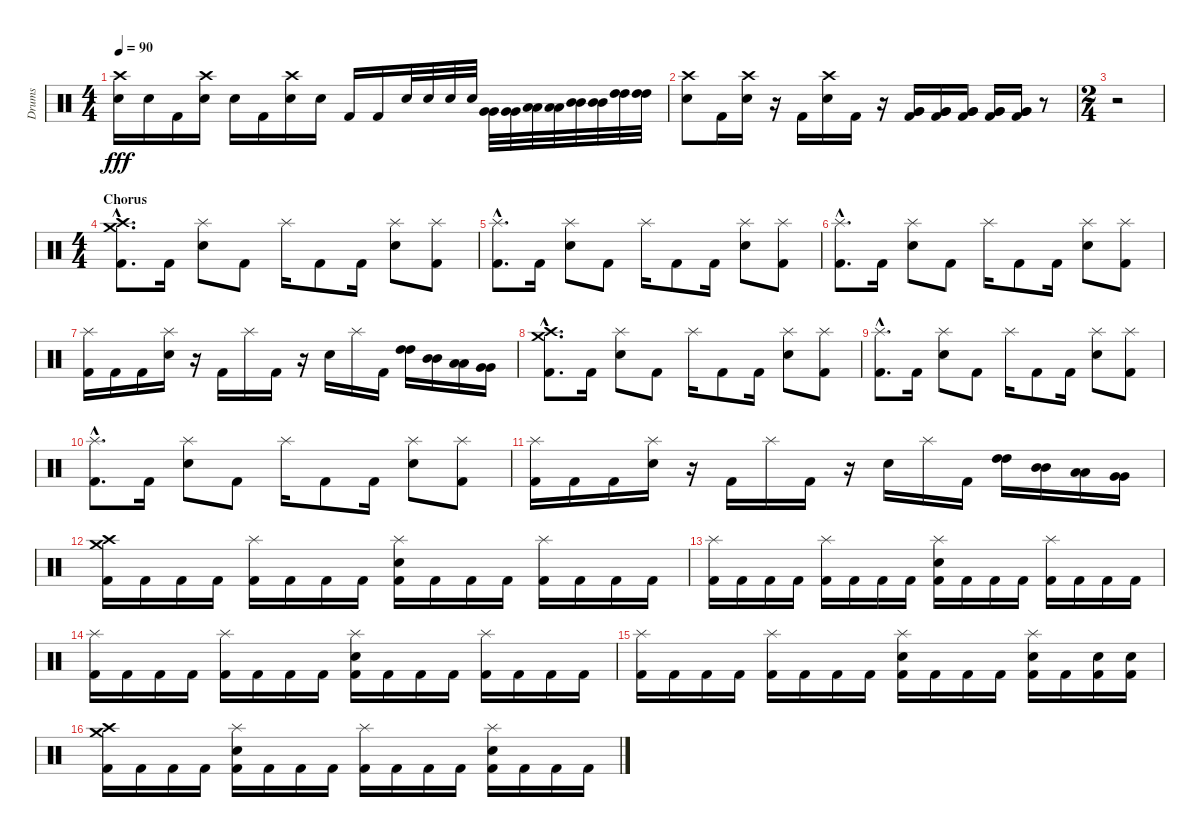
\track ("Drums" "Drums") {instrument percussion}
\staff {score}
\articulation defaults
\ts (4 4)
\tempo 90
\clef neutral
\ks c
("Crash high (hit)" "Electric Snare (hit)").16{dy fff} "Electric Snare (hit)".16 "Kick (hit) 2".16 ("Crash high (hit)" "Electric Snare (hit)").16 "Electric Snare (hit)".16 "Kick (hit) 2".16 ("Crash high (hit)" "Electric Snare (hit)").16 "Electric Snare (hit)".16 "Kick (hit) 2".16 "Kick (hit) 2".16 "Electric Snare (hit)".32 "Electric Snare (hit)".32 "Electric Snare (hit)".32 "Electric Snare (hit)".32 ("Very Low Tom (hit)" "Very Low Tom (hit)").32 ("Very Low Tom (hit)" "Very Low Tom (hit)").32 ("Low Tom (hit)" "Low Tom (hit)").32 ("Low Tom (hit)" "Low Tom (hit)").32 ("Mid Tom (hit)" "Mid Tom (hit)").32 ("Mid Tom (hit)" "Mid Tom (hit)").32 ("High Tom (hit)" "High Tom (hit)").32 ("High Tom (hit)" "High Tom (hit)").32 |
("Crash high (hit)" "Electric Snare (hit)").8 "Kick (hit) 2".16 ("Crash high (hit)" "Electric Snare (hit)").16 r.16 "Kick (hit) 2".16 ("Crash high (hit)" "Electric Snare (hit)").16 "Kick (hit) 2".16 r.16 ("Very Low Tom (hit)" "Very Low Tom (hit)" "Kick (hit) 2").16 ("Very Low Tom (hit)" "Very Low Tom (hit)" "Kick (hit) 2").16 ("Very Low Tom (hit)" "Very Low Tom (hit)" "Kick (hit) 2").16 ("Very Low Tom (hit)" "Very Low Tom (hit)" "Kick (hit) 2").16 ("Very Low Tom (hit)" "Very Low Tom (hit)" "Kick (hit) 2").16 r.8 |
\ts (2 4)
r.2 |
\ts (4 4)
\section ("" "Chorus")
("Crash high (hit)"{hac} "Crash medium (hit)"{hac} "Kick (hit) 2"{hac}).8{d} "Kick (hit) 2".16 ("Splash (hit)" "Electric Snare (hit)").8 "Kick (hit) 2".8 "Splash (hit)".16 "Kick (hit) 2".8 "Kick (hit) 2".16 ("Splash (hit)" "Electric Snare (hit)").8 ("Splash (hit)" "Kick (hit) 2").8 |
("Splash (hit)"{hac} "Kick (hit) 2"{hac}).8{d} "Kick (hit) 2".16 ("Splash (hit)" "Electric Snare (hit)").8 "Kick (hit) 2".8 "Splash (hit)".16 "Kick (hit) 2".8 "Kick (hit) 2".16 ("Splash (hit)" "Electric Snare (hit)").8 ("Splash (hit)" "Kick (hit) 2").8 |
("Splash (hit)"{hac} "Kick (hit) 2"{hac}).8{d} "Kick (hit) 2".16 ("Splash (hit)" "Electric Snare (hit)").8 "Kick (hit) 2".8 "Splash (hit)".16 "Kick (hit) 2".8 "Kick (hit) 2".16 ("Splash (hit)" "Electric Snare (hit)").8 ("Splash (hit)" "Kick (hit) 2").8 |
("Splash (hit)" "Kick (hit) 2").16 "Kick (hit) 2".16 "Kick (hit) 2".16 ("Splash (hit)" "Electric Snare (hit)").16 r.16 "Kick (hit) 2".16 "Splash (hit)".16 "Kick (hit) 2".16 r.16 "Electric Snare (hit)".16 "Splash (hit)".16 "Kick (hit) 2".16 ("High Tom (hit)" "High Tom (hit)").16 ("Mid Tom (hit)" "Mid Tom (hit)").16 ("Low Tom (hit)" "Low Tom (hit)").16 ("Very Low Tom (hit)" "Very Low Tom (hit)").16 |
("Crash high (hit)"{hac} "Crash medium (hit)"{hac} "Kick (hit) 2"{hac}).8{d} "Kick (hit) 2".16 ("Splash (hit)" "Electric Snare (hit)").8 "Kick (hit) 2".8 "Splash (hit)".16 "Kick (hit) 2".8 "Kick (hit) 2".16 ("Splash (hit)" "Electric Snare (hit)").8 ("Splash (hit)" "Kick (hit) 2").8 |
("Splash (hit)"{hac} "Kick (hit) 2"{hac}).8{d} "Kick (hit) 2".16 ("Splash (hit)" "Electric Snare (hit)").8 "Kick (hit) 2".8 "Splash (hit)".16 "Kick (hit) 2".8 "Kick (hit) 2".16 ("Splash (hit)" "Electric Snare (hit)").8 ("Splash (hit)" "Kick (hit) 2").8 |
("Splash (hit)"{hac} "Kick (hit) 2"{hac}).8{d} "Kick (hit) 2".16 ("Splash (hit)" "Electric Snare (hit)").8 "Kick (hit) 2".8 "Splash (hit)".16 "Kick (hit) 2".8 "Kick (hit) 2".16 ("Splash (hit)" "Electric Snare (hit)").8 ("Splash (hit)" "Kick (hit) 2").8 |
("Splash (hit)" "Kick (hit) 2").16 "Kick (hit) 2".16 "Kick (hit) 2".16 ("Splash (hit)" "Electric Snare (hit)").16 r.16 "Kick (hit) 2".16 "Splash (hit)".16 "Kick (hit) 2".16 r.16 "Electric Snare (hit)".16 "Splash (hit)".16 "Kick (hit) 2".16 ("High Tom (hit)" "High Tom (hit)").16 ("Mid Tom (hit)" "Mid Tom (hit)").16 ("Low Tom (hit)" "Low Tom (hit)").16 ("Very Low Tom (hit)" "Very Low Tom (hit)").16 |
("Crash high (hit)" "Crash medium (hit)" "Kick (hit) 2").16 "Kick (hit) 2".16 "Kick (hit) 2".16 "Kick (hit) 2".16 ("Splash (hit)" "Kick (hit) 2").16 "Kick (hit) 2".16 "Kick (hit) 2".16 "Kick (hit) 2".16 ("Splash (hit)" "Electric Snare (hit)" "Kick (hit) 2").16 "Kick (hit) 2".16 "Kick (hit) 2".16 "Kick (hit) 2".16 ("Splash (hit)" "Kick (hit) 2").16 "Kick (hit) 2".16 "Kick (hit) 2".16 "Kick (hit) 2".16 |
("Splash (hit)" "Kick (hit) 2").16 "Kick (hit) 2".16 "Kick (hit) 2".16 "Kick (hit) 2".16 ("Splash (hit)" "Kick (hit) 2").16 "Kick (hit) 2".16 "Kick (hit) 2".16 "Kick (hit) 2".16 ("Splash (hit)" "Electric Snare (hit)" "Kick (hit) 2").16 "Kick (hit) 2".16 "Kick (hit) 2".16 "Kick (hit) 2".16 ("Splash (hit)" "Kick (hit) 2").16 "Kick (hit) 2".16 "Kick (hit) 2".16 "Kick (hit) 2".16 |
("Splash (hit)" "Kick (hit) 2").16 "Kick (hit) 2".16 "Kick (hit) 2".16 "Kick (hit) 2".16 ("Splash (hit)" "Kick (hit) 2").16 "Kick (hit) 2".16 "Kick (hit) 2".16 "Kick (hit) 2".16 ("Splash (hit)" "Electric Snare (hit)" "Kick (hit) 2").16 "Kick (hit) 2".16 "Kick (hit) 2".16 "Kick (hit) 2".16 ("Splash (hit)" "Kick (hit) 2").16 "Kick (hit) 2".16 "Kick (hit) 2".16 "Kick (hit) 2".16 |
("Splash (hit)" "Kick (hit) 2").16 "Kick (hit) 2".16 "Kick (hit) 2".16 "Kick (hit) 2".16 ("Splash (hit)" "Kick (hit) 2").16 "Kick (hit) 2".16 "Kick (hit) 2".16 "Kick (hit) 2".16 ("Splash (hit)" "Electric Snare (hit)" "Kick (hit) 2").16 "Kick (hit) 2".16 "Kick (hit) 2".16 "Kick (hit) 2".16 ("Splash (hit)" "Electric Snare (hit)" "Kick (hit) 2").16 "Kick (hit) 2".16 ("Electric Snare (hit)" "Kick (hit) 2").16 ("Electric Snare (hit)" "Kick (hit) 2").16 |
("Crash high (hit)" "Crash medium (hit)" "Kick (hit) 2").16 "Kick (hit) 2".16 "Kick (hit) 2".16 "Kick (hit) 2".16 ("Splash (hit)" "Electric Snare (hit)" "Kick (hit) 2").16 "Kick (hit) 2".16 "Kick (hit) 2".16 "Kick (hit) 2".16 ("Splash (hit)" "Kick (hit) 2").16 "Kick (hit) 2".16 "Kick (hit) 2".16 "Kick (hit) 2".16 ("Splash (hit)" "Electric Snare (hit)" "Kick (hit) 2").16 "Kick (hit) 2".16 "Kick (hit) 2".16 "Kick (hit) 2".16
